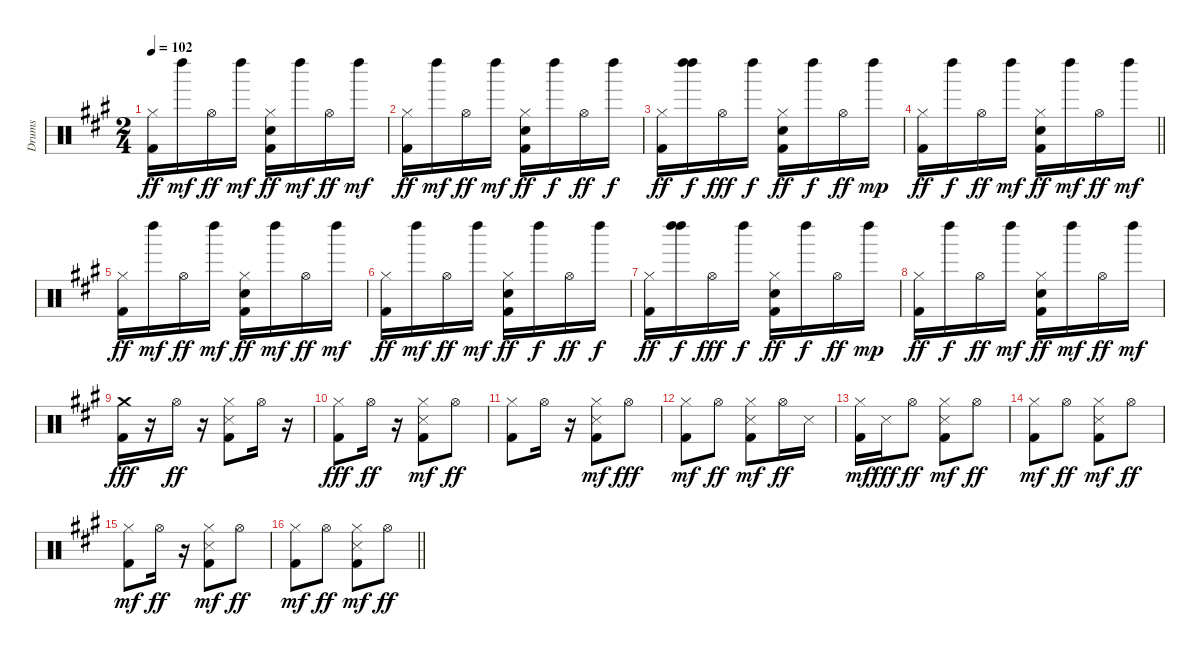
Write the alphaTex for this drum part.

\track ("Drums" "Drums") {instrument percussion}
\staff {score}
\articulation defaults
\ts (2 4)
\tempo 102
\clef neutral
\ks a
("Kick (hit) 2" "Hi-Hat (closed)").16{dy ff} "Left Maraca (hit)".16{dy mf} "Hi-Hat (open)".16{dy ff} "Left Maraca (hit)".16{dy mf} ("Kick (hit) 2" "Electric Snare (hit)" "Hi-Hat (closed)").16{dy ff} "Left Maraca (hit)".16{dy mf} "Hi-Hat (open)".16{dy ff} "Left Maraca (hit)".16{dy mf} |
("Kick (hit) 2" "Hi-Hat (closed)").16{dy ff} "Left Maraca (hit)".16{dy mf} "Hi-Hat (open)".16{dy ff} "Left Maraca (hit)".16{dy mf} ("Kick (hit) 2" "Electric Snare (hit)" "Hi-Hat (closed)").16{dy ff} "Left Maraca (hit)".16{dy f} "Hi-Hat (open)".16{dy ff} "Left Maraca (hit)".16{dy f} |
("Kick (hit) 2" "Hi-Hat (closed)").16{dy ff} ("Left Maraca (hit)" "Left Maraca (hit)").16{dy f} "Hi-Hat (open)".16{dy fff} "Left Maraca (hit)".16{dy f} ("Kick (hit) 2" "Electric Snare (hit)" "Hi-Hat (closed)").16{dy ff} "Left Maraca (hit)".16{dy f} "Hi-Hat (open)".16{dy ff} "Left Maraca (hit)".16{dy mp} |
\barLineRight lightlight
("Kick (hit) 2" "Hi-Hat (closed)").16{dy ff} "Left Maraca (hit)".16{dy f} "Hi-Hat (open)".16{dy ff} "Left Maraca (hit)".16{dy mf} ("Kick (hit) 2" "Electric Snare (hit)" "Hi-Hat (closed)").16{dy ff} "Left Maraca (hit)".16{dy mf} "Hi-Hat (open)".16{dy ff} "Left Maraca (hit)".16{dy mf} |
("Kick (hit) 2" "Hi-Hat (closed)").16{dy ff} "Left Maraca (hit)".16{dy mf} "Hi-Hat (open)".16{dy ff} "Left Maraca (hit)".16{dy mf} ("Kick (hit) 2" "Electric Snare (hit)" "Hi-Hat (closed)").16{dy ff} "Left Maraca (hit)".16{dy mf} "Hi-Hat (open)".16{dy ff} "Left Maraca (hit)".16{dy mf} |
("Kick (hit) 2" "Hi-Hat (closed)").16{dy ff} "Left Maraca (hit)".16{dy mf} "Hi-Hat (open)".16{dy ff} "Left Maraca (hit)".16{dy mf} ("Kick (hit) 2" "Electric Snare (hit)" "Hi-Hat (closed)").16{dy ff} "Left Maraca (hit)".16{dy f} "Hi-Hat (open)".16{dy ff} "Left Maraca (hit)".16{dy f} |
("Kick (hit) 2" "Hi-Hat (closed)").16{dy ff} ("Left Maraca (hit)" "Left Maraca (hit)").16{dy f} "Hi-Hat (open)".16{dy fff} "Left Maraca (hit)".16{dy f} ("Kick (hit) 2" "Electric Snare (hit)" "Hi-Hat (closed)").16{dy ff} "Left Maraca (hit)".16{dy f} "Hi-Hat (open)".16{dy ff} "Left Maraca (hit)".16{dy mp} |
("Kick (hit) 2" "Hi-Hat (closed)").16{dy ff} "Left Maraca (hit)".16{dy f} "Hi-Hat (open)".16{dy ff} "Left Maraca (hit)".16{dy mf} ("Kick (hit) 2" "Electric Snare (hit)" "Hi-Hat (closed)").16{dy ff} "Left Maraca (hit)".16{dy mf} "Hi-Hat (open)".16{dy ff} "Left Maraca (hit)".16{dy mf} |
("Kick (hit) 2" "Crash medium (hit)").16{dy fff} r.16 "Hi-Hat (open)".16{dy ff} r.16 ("Kick (hit) 2" "Snare (side stick) 3" "Hi-Hat (closed)").8 "Hi-Hat (open)".16 r.16 |
("Kick (hit) 2" "Hi-Hat (closed)").8{dy fff} "Hi-Hat (open)".16{dy ff} r.16 ("Kick (hit) 2" "Snare (side stick) 3" "Hi-Hat (closed)").8{dy mf} "Hi-Hat (open)".8{dy ff} |
("Kick (hit) 2" "Hi-Hat (closed)").8 "Hi-Hat (open)".16 r.16 ("Kick (hit) 2" "Snare (side stick) 3" "Hi-Hat (closed)").8{dy mf} "Hi-Hat (open)".8{dy fff} |
("Kick (hit) 2" "Hi-Hat (closed)").8{dy mf} "Hi-Hat (open)".8{dy ff} ("Kick (hit) 2" "Snare (side stick) 3" "Hi-Hat (closed)").8{dy mf} "Hi-Hat (open)".16{dy ff} "Snare (side stick) 3".16 |
("Kick (hit) 2" "Hi-Hat (closed)").16{dy mf} "Snare (side stick) 3".16{dy fff} "Hi-Hat (open)".8{dy ff} ("Kick (hit) 2" "Snare (side stick) 3" "Hi-Hat (closed)").8{dy mf} "Hi-Hat (open)".8{dy ff} |
("Kick (hit) 2" "Hi-Hat (closed)").8{dy mf} "Hi-Hat (open)".8{dy ff} ("Kick (hit) 2" "Snare (side stick) 3" "Hi-Hat (closed)").8{dy mf} "Hi-Hat (open)".8{dy ff} |
("Kick (hit) 2" "Hi-Hat (closed)").8{dy mf} "Hi-Hat (open)".16{dy ff} r.16 ("Kick (hit) 2" "Snare (side stick) 3" "Hi-Hat (closed)").8{dy mf} "Hi-Hat (open)".8{dy ff} |
\barLineRight lightlight
("Kick (hit) 2" "Hi-Hat (closed)").8{dy mf} "Hi-Hat (open)".8{dy ff} ("Kick (hit) 2" "Snare (side stick) 3" "Hi-Hat (closed)").8{dy mf} "Hi-Hat (open)".8{dy ff}
